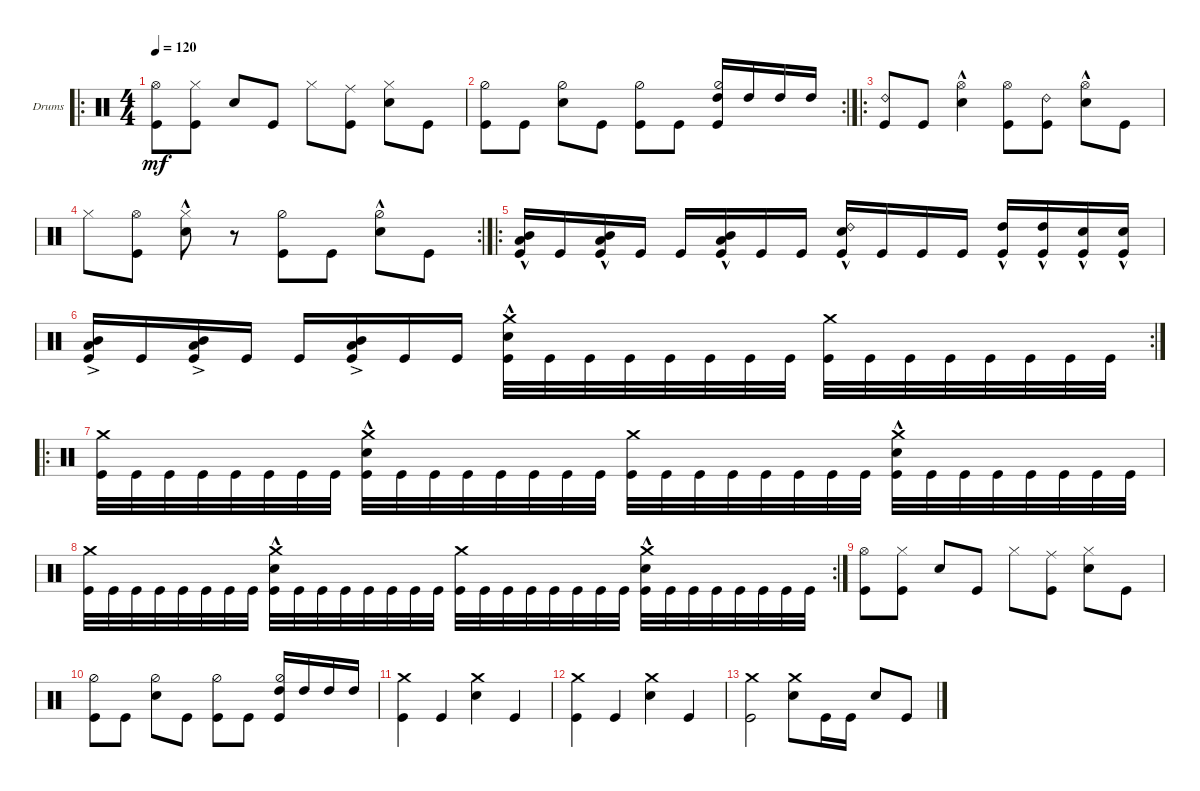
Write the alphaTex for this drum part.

\defaultSystemsLayout 4
\bracketExtendMode groupsimilarinstruments
\firstSystemTrackNameOrientation horizontal
\otherSystemsTrackNameOrientation horizontal
\track ("Drumkit" "Drums") {instrument percussion}
\staff {score}
\articulation defaults
\ro
\ts (4 4)
\tempo 120
\clef neutral
\ks c
("Hi-Hat (open)" "Kick (hit)").8{dy mf} ("Hi-Hat (closed)" "Kick (hit)").8 "Snare (hit) 2".8 "Kick (hit)".8 "Hi-Hat (closed)".8 ("Ride (middle)" "Kick (hit)").8 ("Hi-Hat (closed)" "Snare (hit) 2").8 "Kick (hit)".8 |
\rc 2
("Kick (hit)" "Hi-Hat (half)").8 "Kick (hit)".8 ("Snare (hit) 2" "Hi-Hat (half)").8 "Kick (hit)".8 ("Kick (hit)" "Hi-Hat (half)").8 "Kick (hit)".8 ("Hi-Hat (half)" "Kick (hit)" "High Tom (hit)").16 "High Tom (hit)".16 "High Tom (hit)".16 "High Tom (hit)".16 |
\ro
("Kick (hit)" "Ride (bell) 2").8 "Kick (hit)".8 ("Snare (hit) 2"{hac} "Hi-Hat (open)").4 ("Kick (hit)" "Hi-Hat (open)").8 ("Kick (hit)" "Ride (bell) 2").8 ("Hi-Hat (open)" "Snare (hit) 2"{hac}).8 "Kick (hit)".8 |
\rc 2 "Hi-Hat (closed)".8
("Hi-Hat (open)" "Kick (hit)").8 ("Snare (hit) 2"{hac} "Hi-Hat (closed)").8 r.8 ("Kick (hit)" "Hi-Hat (half)").8 "Kick (hit)".8 ("Snare (hit) 2"{hac} "Hi-Hat (half)").8 "Kick (hit)".8 |
\ro
("Kick (hit)" "Low Tom (hit)"{hac} "Mid Tom (hit)"{hac}).16 "Kick (hit)".16 ("Kick (hit)" "Low Tom (hit)"{hac} "Mid Tom (hit)"{hac}).16 "Kick (hit)".16 "Kick (hit)".16 ("Kick (hit)" "Low Tom (hit)"{hac} "Mid Tom (hit)"{hac}).16 "Kick (hit)".16 "Kick (hit)".16 ("Kick (hit)" "Snare (hit) 2"{hac} "Ride (bell) 2").16 "Kick (hit)".16 "Kick (hit)".16 "Kick (hit)".16 ("Kick (hit)" "High Tom (hit)"{hac}).16 ("Kick (hit)" "High Tom (hit)"{hac}).16 ("Kick (hit)" "Snare (hit) 2"{hac}).16 ("Kick (hit)" "Snare (hit) 2"{hac}).16 |
\rc 2
("Kick (hit)" "Low Tom (hit)"{ac} "Mid Tom (hit)"{ac}).16 "Kick (hit)".16 ("Kick (hit)" "Low Tom (hit)"{ac} "Mid Tom (hit)"{ac}).16 "Kick (hit)".16 "Kick (hit)".16 ("Kick (hit)" "Low Tom (hit)"{ac} "Mid Tom (hit)"{ac}).16 "Kick (hit)".16 "Kick (hit)".16 ("Kick (hit)" "Crash medium (hit)" "Snare (hit) 2"{hac}).32 "Kick (hit)".32 "Kick (hit)".32 "Kick (hit)".32 "Kick (hit)".32 "Kick (hit)".32 "Kick (hit)".32 "Kick (hit)".32 ("Kick (hit)" "Crash medium (hit)").32 "Kick (hit)".32 "Kick (hit)".32 "Kick (hit)".32 "Kick (hit)".32 "Kick (hit)".32 "Kick (hit)".32 "Kick (hit)".32 |
\ro
("Kick (hit)" "Crash medium (hit)").32 "Kick (hit)".32 "Kick (hit)".32 "Kick (hit)".32 "Kick (hit)".32 "Kick (hit)".32 "Kick (hit)".32 "Kick (hit)".32 ("Kick (hit)" "Crash medium (hit)" "Snare (hit) 2"{hac}).32 "Kick (hit)".32 "Kick (hit)".32 "Kick (hit)".32 "Kick (hit)".32 "Kick (hit)".32 "Kick (hit)".32 "Kick (hit)".32 ("Kick (hit)" "Crash medium (hit)").32 "Kick (hit)".32 "Kick (hit)".32 "Kick (hit)".32 "Kick (hit)".32 "Kick (hit)".32 "Kick (hit)".32 "Kick (hit)".32 ("Kick (hit)" "Crash medium (hit)" "Snare (hit) 2"{hac}).32 "Kick (hit)".32 "Kick (hit)".32 "Kick (hit)".32 "Kick (hit)".32 "Kick (hit)".32 "Kick (hit)".32 "Kick (hit)".32 |
\rc 2
("Kick (hit)" "Crash medium (hit)").32 "Kick (hit)".32 "Kick (hit)".32 "Kick (hit)".32 "Kick (hit)".32 "Kick (hit)".32 "Kick (hit)".32 "Kick (hit)".32 ("Kick (hit)" "Crash medium (hit)" "Snare (hit) 2"{hac}).32 "Kick (hit)".32 "Kick (hit)".32 "Kick (hit)".32 "Kick (hit)".32 "Kick (hit)".32 "Kick (hit)".32 "Kick (hit)".32 ("Kick (hit)" "Crash medium (hit)").32 "Kick (hit)".32 "Kick (hit)".32 "Kick (hit)".32 "Kick (hit)".32 "Kick (hit)".32 "Kick (hit)".32 "Kick (hit)".32 ("Kick (hit)" "Crash medium (hit)" "Snare (hit) 2"{hac}).32 "Kick (hit)".32 "Kick (hit)".32 "Kick (hit)".32 "Kick (hit)".32 "Kick (hit)".32 "Kick (hit)".32 "Kick (hit)".32 |
("Hi-Hat (open)" "Kick (hit)").8 ("Hi-Hat (closed)" "Kick (hit)").8 "Snare (hit) 2".8 "Kick (hit)".8 "Hi-Hat (closed)".8 ("Ride (middle)" "Kick (hit)").8 ("Hi-Hat (closed)" "Snare (hit) 2").8 "Kick (hit)".8 |
("Kick (hit)" "Hi-Hat (half)").8 "Kick (hit)".8 ("Snare (hit) 2" "Hi-Hat (half)").8 "Kick (hit)".8 ("Kick (hit)" "Hi-Hat (half)").8 "Kick (hit)".8 ("Hi-Hat (half)" "Kick (hit)" "High Tom (hit)").16 "High Tom (hit)".16 "High Tom (hit)".16 "High Tom (hit)".16 |
("Crash medium (hit)" "Kick (hit)").4 "Kick (hit)".4 ("Crash medium (hit)" "Snare (hit) 2").4 "Kick (hit)".4 |
("Crash medium (hit)" "Kick (hit)").4 "Kick (hit)".4 ("Crash medium (hit)" "Snare (hit) 2").4 "Kick (hit)".4 |
("Crash medium (hit)" "Kick (hit)").2 ("Crash medium (hit)" "Snare (hit) 2").8 "Kick (hit)".16 "Kick (hit)".16 "Snare (hit) 2".8 "Kick (hit)".8
